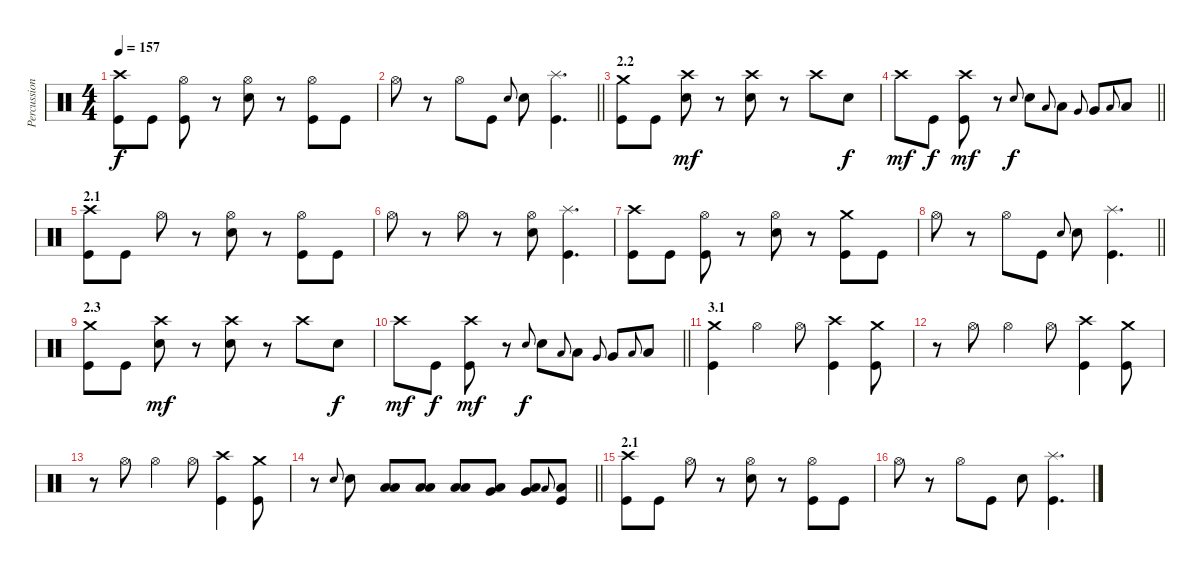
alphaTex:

\track ("Percussion" "Percussion") {instrument percussion}
\staff {score}
\articulation defaults
\ts (4 4)
\tempo 157
\clef neutral
\ks c
("Crash high (hit)" "Kick (hit)").8{dy f} "Kick (hit)".8 ("Hi-Hat (open)" "Kick (hit)").8 r.8 ("Hi-Hat (open)" "Snare (hit) 2").8 r.8 ("Hi-Hat (open)" "Kick (hit)").8 "Kick (hit)".8 |
\barLineRight lightlight "Hi-Hat (open)".8
r.8 "Hi-Hat (open)".8 "Kick (hit)".8 "Snare (hit) 2".8{gr onbeat} "Snare (hit) 2".8 ("Splash (hit)" "Kick (hit)").4{d} |
\section ("" "2.2")
("Crash medium (hit)" "Kick (hit)").8 "Kick (hit)".8 ("Crash high (hit)" "Snare (hit) 2").8{dy mf} r.8 ("Crash high (hit)" "Snare (hit) 2").8 r.8 "Crash high (hit)".8 "Snare (hit) 2".8{dy f} |
\barLineRight lightlight "Crash high (hit)".8{dy mf} "Kick (hit)".8{dy f}
("Crash high (hit)" "Kick (hit)").8{dy mf} r.8 "Snare (hit) 2".8{gr onbeat dy f} "Snare (hit) 2".8 "Low Tom (hit)".8{gr onbeat} "Low Tom (hit)".8 "Very Low Tom (hit)".8{gr onbeat} "Very Low Tom (hit)".8 "Low Floor Tom (hit)".8{gr onbeat} "Low Floor Tom (hit)".8 |
\section ("" "2.1")
("Crash high (hit)" "Kick (hit)").8 "Kick (hit)".8 "Hi-Hat (open)".8 r.8 ("Hi-Hat (open)" "Snare (hit) 2").8 r.8 ("Hi-Hat (open)" "Kick (hit)").8 "Kick (hit)".8 |
"Hi-Hat (open)".8 r.8 "Hi-Hat (open)".8 r.8 ("Hi-Hat (open)" "Snare (hit) 2").8 ("Splash (hit)" "Kick (hit)").4{d} |
("Crash high (hit)" "Kick (hit)").8 "Kick (hit)".8 ("Hi-Hat (open)" "Kick (hit)").8 r.8 ("Hi-Hat (open)" "Snare (hit) 2").8 r.8 ("Crash medium (hit)" "Kick (hit)").8 "Kick (hit)".8 |
\barLineRight lightlight "Hi-Hat (open)".8
r.8 "Hi-Hat (open)".8 "Kick (hit)".8 "Snare (hit) 2".8{gr onbeat} "Snare (hit) 2".8 ("Splash (hit)" "Kick (hit)").4{d} |
\section ("" "2.3")
("Crash medium (hit)" "Kick (hit)").8 "Kick (hit)".8 ("Crash high (hit)" "Snare (hit) 2").8{dy mf} r.8 ("Crash high (hit)" "Snare (hit) 2").8 r.8 "Crash high (hit)".8 "Snare (hit) 2".8{dy f} |
\barLineRight lightlight "Crash high (hit)".8{dy mf} "Kick (hit)".8{dy f}
("Crash high (hit)" "Kick (hit)").8{dy mf} r.8 "Snare (hit) 2".8{gr onbeat dy f} "Snare (hit) 2".8 "Low Tom (hit)".8{gr onbeat} "Low Tom (hit)".8 "Very Low Tom (hit)".8{gr onbeat} "Very Low Tom (hit)".8 "Low Floor Tom (hit)".8{gr onbeat} "Low Floor Tom (hit)".8 |
\section ("" "3.1")
("Crash medium (hit)" "Kick (hit)").4 "Hi-Hat (open)".4 "Hi-Hat (open)".8 ("Crash high (hit)" "Kick (hit)").4 ("Crash medium (hit)" "Kick (hit)").8 |
r.8 "Hi-Hat (open)".8 "Hi-Hat (open)".4 "Hi-Hat (open)".8 ("Crash high (hit)" "Kick (hit)").4 ("Crash medium (hit)" "Kick (hit)").8 |
r.8 "Hi-Hat (open)".8 "Hi-Hat (open)".4 "Hi-Hat (open)".8 ("Crash high (hit)" "Kick (hit)").4 ("Crash medium (hit)" "Kick (hit)").8 |
\barLineRight lightlight
r.8 "Snare (hit) 2".8{gr onbeat} "Snare (hit) 2".8 ("Low Tom (hit)" "Low Floor Tom (hit)").8 ("Low Tom (hit)" "Low Floor Tom (hit)").8 ("Low Tom (hit)" "Low Floor Tom (hit)").8 ("Very Low Tom (hit)" "Low Floor Tom (hit)").8 ("Very Low Tom (hit)" "Low Floor Tom (hit)").8 "Low Floor Tom (hit)".8{gr onbeat} ("Low Floor Tom (hit)" "Kick (hit)").8 |
\section ("" "2.1")
("Crash high (hit)" "Kick (hit)").8 "Kick (hit)".8 "Hi-Hat (open)".8 r.8 ("Hi-Hat (open)" "Snare (hit) 2").8 r.8 ("Hi-Hat (open)" "Kick (hit)").8 "Kick (hit)".8 |
"Hi-Hat (open)".8 r.8 "Hi-Hat (open)".8 "Kick (hit)".8 "Snare (hit) 2".8 ("Splash (hit)" "Kick (hit)").4{d}
